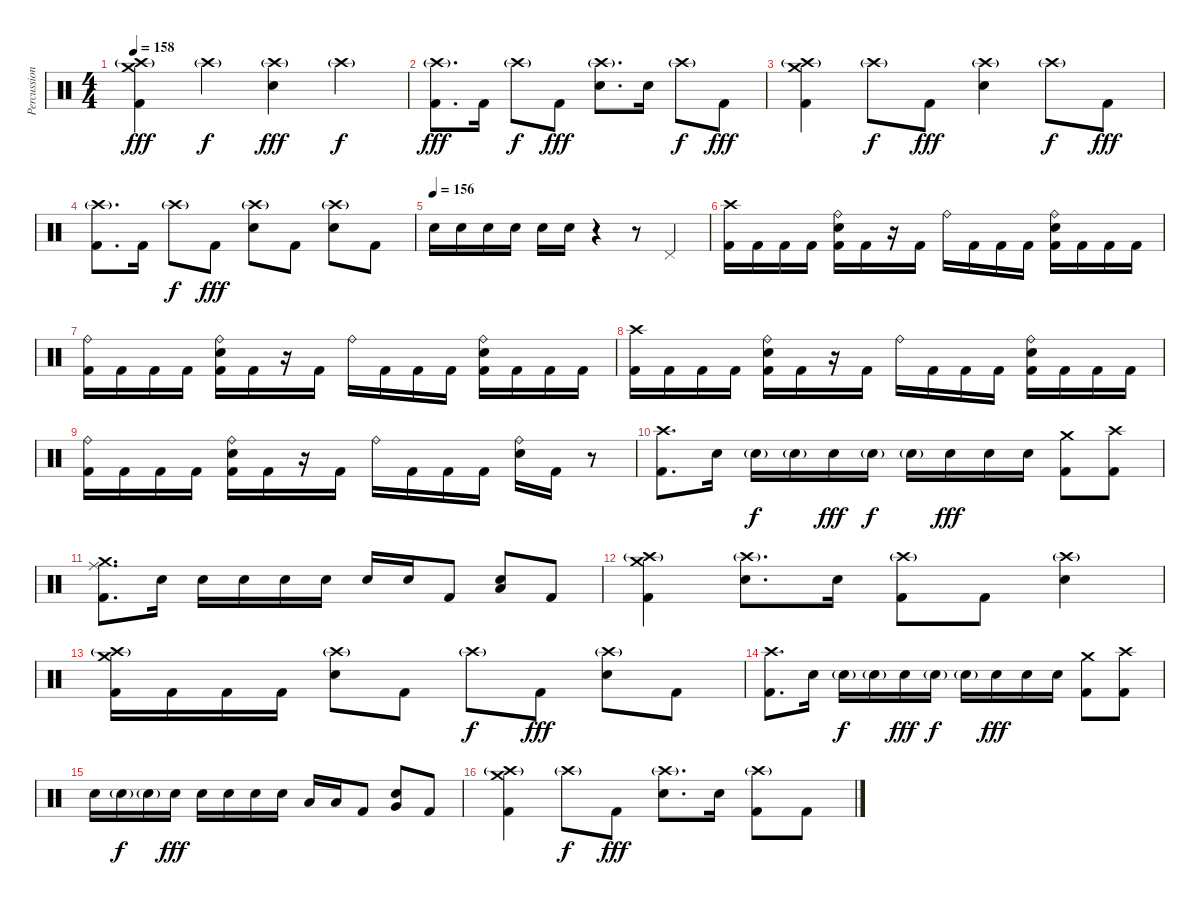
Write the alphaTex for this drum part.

\track ("Percussion" "Percussion") {instrument percussion}
\staff {score}
\articulation defaults
\ts (4 4)
\tempo 158
\clef neutral
\ks c
("Crash high (hit)"{g} "Crash medium (hit)" "Kick (hit) 2").4{dy fff} "Crash high (hit)"{g}.4{dy f} ("Crash high (hit)"{g} "Electric Snare (hit)").4{dy fff} "Crash high (hit)"{g}.4{dy f} |
("Crash high (hit)"{g} "Kick (hit) 2").8{d dy fff} "Kick (hit) 2".16 "Crash high (hit)"{g}.8{dy f} "Kick (hit) 2".8{dy fff} ("Crash high (hit)"{g} "Electric Snare (hit)").8{d} "Electric Snare (hit)".16 "Crash high (hit)"{g}.8{dy f} "Kick (hit) 2".8{dy fff} |
("Crash high (hit)"{g} "Crash medium (hit)" "Kick (hit) 2").4 "Crash high (hit)"{g}.8{dy f} "Kick (hit) 2".8{dy fff} ("Crash high (hit)"{g} "Electric Snare (hit)").4 "Crash high (hit)"{g}.8{dy f} "Kick (hit) 2".8{dy fff} |
("Crash high (hit)"{g} "Kick (hit) 2").8{d} "Kick (hit) 2".16 "Crash high (hit)"{g}.8{dy f} "Kick (hit) 2".8{dy fff} ("Crash high (hit)"{g} "Electric Snare (hit)").8 "Kick (hit) 2".8 ("Crash high (hit)"{g} "Electric Snare (hit)").8 "Kick (hit) 2".8 |
\tempo (156)
"Electric Snare (hit)".16 "Electric Snare (hit)".16 "Electric Snare (hit)".16 "Electric Snare (hit)".16 "Electric Snare (hit)".16 "Electric Snare (hit)".16 r.4 r.8 "Pedal Hi-Hat (hit)".4 |
("Crash high (hit)" "Kick (hit) 2").16 "Kick (hit) 2".16 "Kick (hit) 2".16 "Kick (hit) 2".16 ("Ride (bell)" "Electric Snare (hit)" "Kick (hit) 2").16 "Kick (hit) 2".16 r.16 "Kick (hit) 2".16 "Ride (bell)".16 "Kick (hit) 2".16 "Kick (hit) 2".16 "Kick (hit) 2".16 ("Ride (bell)" "Electric Snare (hit)" "Kick (hit) 2").16 "Kick (hit) 2".16 "Kick (hit) 2".16 "Kick (hit) 2".16 |
("Ride (bell)" "Kick (hit) 2").16 "Kick (hit) 2".16 "Kick (hit) 2".16 "Kick (hit) 2".16 ("Ride (bell)" "Electric Snare (hit)" "Kick (hit) 2").16 "Kick (hit) 2".16 r.16 "Kick (hit) 2".16 "Ride (bell)".16 "Kick (hit) 2".16 "Kick (hit) 2".16 "Kick (hit) 2".16 ("Ride (bell)" "Electric Snare (hit)" "Kick (hit) 2").16 "Kick (hit) 2".16 "Kick (hit) 2".16 "Kick (hit) 2".16 |
("Crash high (hit)" "Kick (hit) 2").16 "Kick (hit) 2".16 "Kick (hit) 2".16 "Kick (hit) 2".16 ("Ride (bell)" "Electric Snare (hit)" "Kick (hit) 2").16 "Kick (hit) 2".16 r.16 "Kick (hit) 2".16 "Ride (bell)".16 "Kick (hit) 2".16 "Kick (hit) 2".16 "Kick (hit) 2".16 ("Ride (bell)" "Electric Snare (hit)" "Kick (hit) 2").16 "Kick (hit) 2".16 "Kick (hit) 2".16 "Kick (hit) 2".16 |
("Ride (bell)" "Kick (hit) 2").16 "Kick (hit) 2".16 "Kick (hit) 2".16 "Kick (hit) 2".16 ("Ride (bell)" "Electric Snare (hit)" "Kick (hit) 2").16 "Kick (hit) 2".16 r.16 "Kick (hit) 2".16 "Ride (bell)".16 "Kick (hit) 2".16 "Kick (hit) 2".16 "Kick (hit) 2".16 ("Ride (bell)" "Electric Snare (hit)").16 "Kick (hit) 2".16 r.8 |
("Crash high (hit)" "Kick (hit) 2").8{d} "Electric Snare (hit)".16 "Electric Snare (hit)"{g}.16{dy f} "Electric Snare (hit)"{g}.16 "Electric Snare (hit)".16{dy fff} "Electric Snare (hit)"{g}.16{dy f} "Electric Snare (hit)"{g}.16 "Electric Snare (hit)".16{dy fff} "Electric Snare (hit)".16 "Electric Snare (hit)".16 ("Crash medium (hit)" "Kick (hit) 2").8 ("Crash high (hit)" "Kick (hit) 2").8 |
("Crash medium (hit)" "Ride (middle)" "Kick (hit) 2").8{d} "Electric Snare (hit)".16 "Electric Snare (hit)".16 "Electric Snare (hit)".16 "Electric Snare (hit)".16 "Electric Snare (hit)".16 "Electric Snare (hit)".16 "Electric Snare (hit)".16 "Kick (hit) 2".8 ("Electric Snare (hit)" "Low Tom (hit)").8 "Kick (hit) 2".8 |
("Crash high (hit)"{g} "Crash medium (hit)" "Kick (hit) 2").4 ("Crash high (hit)"{g} "Electric Snare (hit)").8{d} "Electric Snare (hit)".16 ("Crash high (hit)"{g} "Kick (hit) 2").8 "Kick (hit) 2".8 ("Crash high (hit)"{g} "Electric Snare (hit)").4 |
("Crash high (hit)"{g} "Crash medium (hit)" "Kick (hit) 2").16 "Kick (hit) 2".16 "Kick (hit) 2".16 "Kick (hit) 2".16 ("Crash high (hit)"{g} "Electric Snare (hit)").8 "Kick (hit) 2".8 "Crash high (hit)"{g}.8{dy f} "Kick (hit) 2".8{dy fff} ("Crash high (hit)"{g} "Electric Snare (hit)").8 "Kick (hit) 2".8 |
("Crash high (hit)" "Kick (hit) 2").8{d} "Electric Snare (hit)".16 "Electric Snare (hit)"{g}.16{dy f} "Electric Snare (hit)"{g}.16 "Electric Snare (hit)".16{dy fff} "Electric Snare (hit)"{g}.16{dy f} "Electric Snare (hit)"{g}.16 "Electric Snare (hit)".16{dy fff} "Electric Snare (hit)".16 "Electric Snare (hit)".16 ("Crash medium (hit)" "Kick (hit) 2").8 ("Crash high (hit)" "Kick (hit) 2").8 |
"Electric Snare (hit)".16 "Electric Snare (hit)"{g}.16{dy f} "Electric Snare (hit)"{g}.16 "Electric Snare (hit)".16{dy fff} "Electric Snare (hit)".16 "Electric Snare (hit)".16 "Electric Snare (hit)".16 "Electric Snare (hit)".16 "Low Tom (hit)".16 "Low Tom (hit)".16 "Kick (hit) 2".8 ("Electric Snare (hit)" "Very Low Tom (hit)").8 "Kick (hit) 2".8 |
("Crash high (hit)"{g} "Crash medium (hit)" "Kick (hit) 2").4 "Crash high (hit)"{g}.8{dy f} "Kick (hit) 2".8{dy fff} ("Crash high (hit)"{g} "Electric Snare (hit)").8{d} "Electric Snare (hit)".16 ("Crash high (hit)"{g} "Kick (hit) 2").8 "Kick (hit) 2".8
